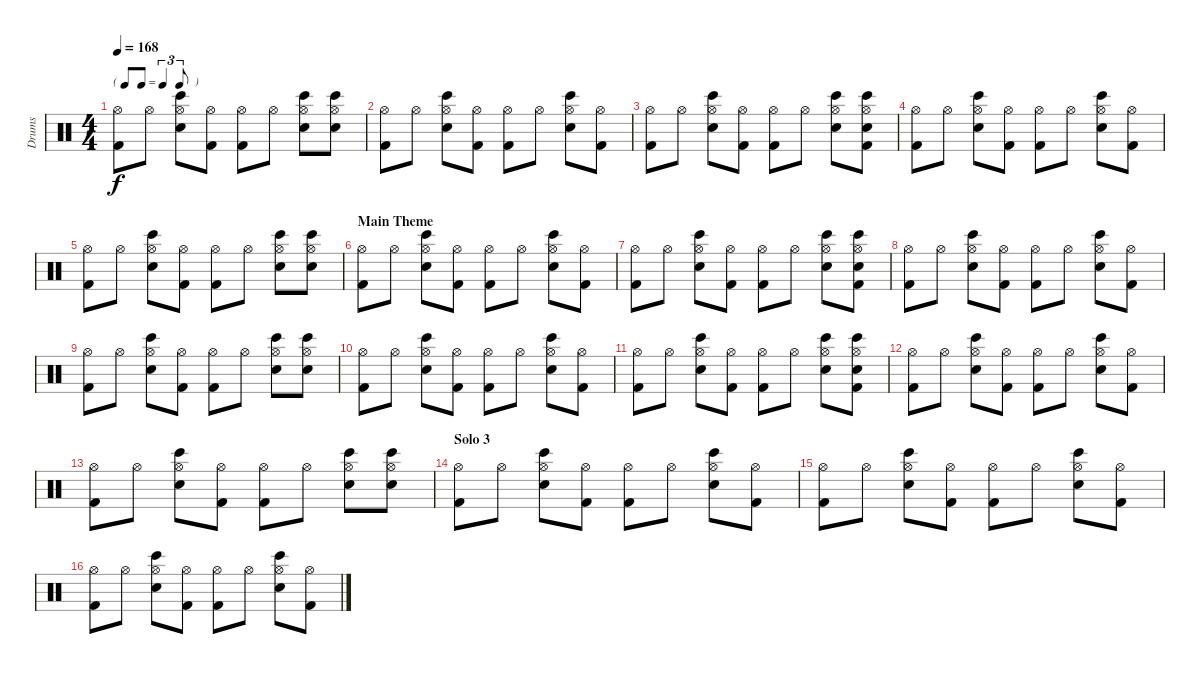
\track ("Drums" "Drums") {instrument percussion}
\staff {score}
\articulation defaults
\ts (4 4)
\tf triplet8th
\tempo 168
\clef neutral
\ks c
("Hi-Hat (open)" "Kick (hit) 2").8{dy f} "Hi-Hat (open)".8 ("Hi-Hat (open)" "Bongo High (hit)" "Snare (hit) 2").8 ("Hi-Hat (open)" "Kick (hit) 2").8 ("Hi-Hat (open)" "Kick (hit) 2").8 "Hi-Hat (open)".8 ("Hi-Hat (open)" "Bongo High (hit)" "Snare (hit) 2").8 ("Hi-Hat (open)" "Bongo High (hit)" "Snare (hit) 2").8 |
("Hi-Hat (open)" "Kick (hit) 2").8 "Hi-Hat (open)".8 ("Hi-Hat (open)" "Bongo High (hit)" "Snare (hit) 2").8 ("Hi-Hat (open)" "Kick (hit) 2").8 ("Hi-Hat (open)" "Kick (hit) 2").8 "Hi-Hat (open)".8 ("Hi-Hat (open)" "Bongo High (hit)" "Snare (hit) 2").8 ("Hi-Hat (open)" "Kick (hit) 2").8 |
("Hi-Hat (open)" "Kick (hit) 2").8 "Hi-Hat (open)".8 ("Hi-Hat (open)" "Bongo High (hit)" "Snare (hit) 2").8 ("Hi-Hat (open)" "Kick (hit) 2").8 ("Hi-Hat (open)" "Kick (hit) 2").8 "Hi-Hat (open)".8 ("Hi-Hat (open)" "Bongo High (hit)" "Snare (hit) 2").8 ("Hi-Hat (open)" "Bongo High (hit)" "Snare (hit) 2" "Kick (hit) 2").8 |
("Hi-Hat (open)" "Kick (hit) 2").8 "Hi-Hat (open)".8 ("Hi-Hat (open)" "Bongo High (hit)" "Snare (hit) 2").8 ("Hi-Hat (open)" "Kick (hit) 2").8 ("Hi-Hat (open)" "Kick (hit) 2").8 "Hi-Hat (open)".8 ("Hi-Hat (open)" "Bongo High (hit)" "Snare (hit) 2").8 ("Hi-Hat (open)" "Kick (hit) 2").8 |
("Hi-Hat (open)" "Kick (hit) 2").8 "Hi-Hat (open)".8 ("Hi-Hat (open)" "Bongo High (hit)" "Snare (hit) 2").8 ("Hi-Hat (open)" "Kick (hit) 2").8 ("Hi-Hat (open)" "Kick (hit) 2").8 "Hi-Hat (open)".8 ("Hi-Hat (open)" "Bongo High (hit)" "Snare (hit) 2").8 ("Hi-Hat (open)" "Bongo High (hit)" "Snare (hit) 2").8 |
\section ("" "Main Theme")
("Hi-Hat (open)" "Kick (hit) 2").8 "Hi-Hat (open)".8 ("Hi-Hat (open)" "Bongo High (hit)" "Snare (hit) 2").8 ("Hi-Hat (open)" "Kick (hit) 2").8 ("Hi-Hat (open)" "Kick (hit) 2").8 "Hi-Hat (open)".8 ("Hi-Hat (open)" "Bongo High (hit)" "Snare (hit) 2").8 ("Hi-Hat (open)" "Kick (hit) 2").8 |
("Hi-Hat (open)" "Kick (hit) 2").8 "Hi-Hat (open)".8 ("Hi-Hat (open)" "Bongo High (hit)" "Snare (hit) 2").8 ("Hi-Hat (open)" "Kick (hit) 2").8 ("Hi-Hat (open)" "Kick (hit) 2").8 "Hi-Hat (open)".8 ("Hi-Hat (open)" "Bongo High (hit)" "Snare (hit) 2").8 ("Hi-Hat (open)" "Bongo High (hit)" "Snare (hit) 2" "Kick (hit) 2").8 |
("Hi-Hat (open)" "Kick (hit) 2").8 "Hi-Hat (open)".8 ("Hi-Hat (open)" "Bongo High (hit)" "Snare (hit) 2").8 ("Hi-Hat (open)" "Kick (hit) 2").8 ("Hi-Hat (open)" "Kick (hit) 2").8 "Hi-Hat (open)".8 ("Hi-Hat (open)" "Bongo High (hit)" "Snare (hit) 2").8 ("Hi-Hat (open)" "Kick (hit) 2").8 |
("Hi-Hat (open)" "Kick (hit) 2").8 "Hi-Hat (open)".8 ("Hi-Hat (open)" "Bongo High (hit)" "Snare (hit) 2").8 ("Hi-Hat (open)" "Kick (hit) 2").8 ("Hi-Hat (open)" "Kick (hit) 2").8 "Hi-Hat (open)".8 ("Hi-Hat (open)" "Bongo High (hit)" "Snare (hit) 2").8 ("Hi-Hat (open)" "Bongo High (hit)" "Snare (hit) 2").8 |
("Hi-Hat (open)" "Kick (hit) 2").8 "Hi-Hat (open)".8 ("Hi-Hat (open)" "Bongo High (hit)" "Snare (hit) 2").8 ("Hi-Hat (open)" "Kick (hit) 2").8 ("Hi-Hat (open)" "Kick (hit) 2").8 "Hi-Hat (open)".8 ("Hi-Hat (open)" "Bongo High (hit)" "Snare (hit) 2").8 ("Hi-Hat (open)" "Kick (hit) 2").8 |
("Hi-Hat (open)" "Kick (hit) 2").8 "Hi-Hat (open)".8 ("Hi-Hat (open)" "Bongo High (hit)" "Snare (hit) 2").8 ("Hi-Hat (open)" "Kick (hit) 2").8 ("Hi-Hat (open)" "Kick (hit) 2").8 "Hi-Hat (open)".8 ("Hi-Hat (open)" "Bongo High (hit)" "Snare (hit) 2").8 ("Hi-Hat (open)" "Bongo High (hit)" "Snare (hit) 2" "Kick (hit) 2").8 |
("Hi-Hat (open)" "Kick (hit) 2").8 "Hi-Hat (open)".8 ("Hi-Hat (open)" "Bongo High (hit)" "Snare (hit) 2").8 ("Hi-Hat (open)" "Kick (hit) 2").8 ("Hi-Hat (open)" "Kick (hit) 2").8 "Hi-Hat (open)".8 ("Hi-Hat (open)" "Bongo High (hit)" "Snare (hit) 2").8 ("Hi-Hat (open)" "Kick (hit) 2").8 |
("Hi-Hat (open)" "Kick (hit) 2").8 "Hi-Hat (open)".8 ("Hi-Hat (open)" "Bongo High (hit)" "Snare (hit) 2").8 ("Hi-Hat (open)" "Kick (hit) 2").8 ("Hi-Hat (open)" "Kick (hit) 2").8 "Hi-Hat (open)".8 ("Hi-Hat (open)" "Bongo High (hit)" "Snare (hit) 2").8 ("Hi-Hat (open)" "Bongo High (hit)" "Snare (hit) 2").8 |
\section ("" "Solo 3")
("Hi-Hat (open)" "Kick (hit) 2").8 "Hi-Hat (open)".8 ("Hi-Hat (open)" "Bongo High (hit)" "Snare (hit) 2").8 ("Hi-Hat (open)" "Kick (hit) 2").8 ("Hi-Hat (open)" "Kick (hit) 2").8 "Hi-Hat (open)".8 ("Hi-Hat (open)" "Bongo High (hit)" "Snare (hit) 2").8 ("Hi-Hat (open)" "Kick (hit) 2").8 |
("Hi-Hat (open)" "Kick (hit) 2").8 "Hi-Hat (open)".8 ("Hi-Hat (open)" "Bongo High (hit)" "Snare (hit) 2").8 ("Hi-Hat (open)" "Kick (hit) 2").8 ("Hi-Hat (open)" "Kick (hit) 2").8 "Hi-Hat (open)".8 ("Hi-Hat (open)" "Bongo High (hit)" "Snare (hit) 2").8 ("Hi-Hat (open)" "Kick (hit) 2").8 |
("Hi-Hat (open)" "Kick (hit) 2").8 "Hi-Hat (open)".8 ("Hi-Hat (open)" "Bongo High (hit)" "Snare (hit) 2").8 ("Hi-Hat (open)" "Kick (hit) 2").8 ("Hi-Hat (open)" "Kick (hit) 2").8 "Hi-Hat (open)".8 ("Hi-Hat (open)" "Bongo High (hit)" "Snare (hit) 2").8 ("Hi-Hat (open)" "Kick (hit) 2").8
